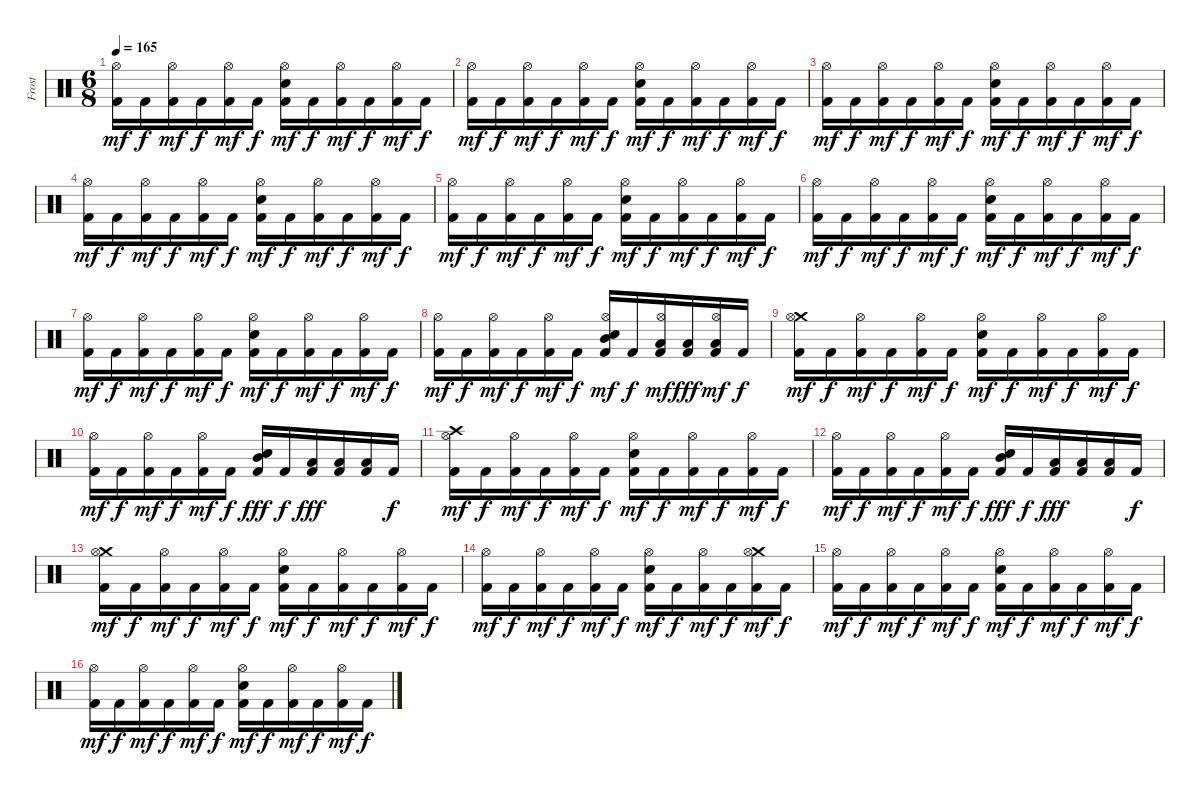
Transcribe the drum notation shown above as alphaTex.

\track ("Frost" "Frost") {instrument percussion}
\staff {score}
\articulation defaults
\ts (6 8)
\tempo 165
\clef neutral
\ks c
("Kick (hit) 2" "Hi-Hat (open)").16{dy mf} "Kick (hit) 2".16{dy f} ("Kick (hit) 2" "Hi-Hat (open)").16{dy mf} "Kick (hit) 2".16{dy f} ("Kick (hit) 2" "Hi-Hat (open)").16{dy mf} "Kick (hit) 2".16{dy f} ("Kick (hit) 2" "Hi-Hat (open)" "Snare (hit) 2").16{dy mf} "Kick (hit) 2".16{dy f} ("Kick (hit) 2" "Hi-Hat (open)").16{dy mf} "Kick (hit) 2".16{dy f} ("Kick (hit) 2" "Hi-Hat (open)").16{dy mf} "Kick (hit) 2".16{dy f} |
("Kick (hit) 2" "Hi-Hat (open)").16{dy mf} "Kick (hit) 2".16{dy f} ("Kick (hit) 2" "Hi-Hat (open)").16{dy mf} "Kick (hit) 2".16{dy f} ("Kick (hit) 2" "Hi-Hat (open)").16{dy mf} "Kick (hit) 2".16{dy f} ("Kick (hit) 2" "Hi-Hat (open)" "Snare (hit) 2").16{dy mf} "Kick (hit) 2".16{dy f} ("Kick (hit) 2" "Hi-Hat (open)").16{dy mf} "Kick (hit) 2".16{dy f} ("Kick (hit) 2" "Hi-Hat (open)").16{dy mf} "Kick (hit) 2".16{dy f} |
("Kick (hit) 2" "Hi-Hat (open)").16{dy mf} "Kick (hit) 2".16{dy f} ("Kick (hit) 2" "Hi-Hat (open)").16{dy mf} "Kick (hit) 2".16{dy f} ("Kick (hit) 2" "Hi-Hat (open)").16{dy mf} "Kick (hit) 2".16{dy f} ("Kick (hit) 2" "Hi-Hat (open)" "Snare (hit) 2").16{dy mf} "Kick (hit) 2".16{dy f} ("Kick (hit) 2" "Hi-Hat (open)").16{dy mf} "Kick (hit) 2".16{dy f} ("Kick (hit) 2" "Hi-Hat (open)").16{dy mf} "Kick (hit) 2".16{dy f} |
("Kick (hit) 2" "Hi-Hat (open)").16{dy mf} "Kick (hit) 2".16{dy f} ("Kick (hit) 2" "Hi-Hat (open)").16{dy mf} "Kick (hit) 2".16{dy f} ("Kick (hit) 2" "Hi-Hat (open)").16{dy mf} "Kick (hit) 2".16{dy f} ("Kick (hit) 2" "Hi-Hat (open)" "Snare (hit) 2").16{dy mf} "Kick (hit) 2".16{dy f} ("Kick (hit) 2" "Hi-Hat (open)").16{dy mf} "Kick (hit) 2".16{dy f} ("Kick (hit) 2" "Hi-Hat (open)").16{dy mf} "Kick (hit) 2".16{dy f} |
("Kick (hit) 2" "Hi-Hat (open)").16{dy mf} "Kick (hit) 2".16{dy f} ("Kick (hit) 2" "Hi-Hat (open)").16{dy mf} "Kick (hit) 2".16{dy f} ("Kick (hit) 2" "Hi-Hat (open)").16{dy mf} "Kick (hit) 2".16{dy f} ("Kick (hit) 2" "Hi-Hat (open)" "Snare (hit) 2").16{dy mf} "Kick (hit) 2".16{dy f} ("Kick (hit) 2" "Hi-Hat (open)").16{dy mf} "Kick (hit) 2".16{dy f} ("Kick (hit) 2" "Hi-Hat (open)").16{dy mf} "Kick (hit) 2".16{dy f} |
("Kick (hit) 2" "Hi-Hat (open)").16{dy mf} "Kick (hit) 2".16{dy f} ("Kick (hit) 2" "Hi-Hat (open)").16{dy mf} "Kick (hit) 2".16{dy f} ("Kick (hit) 2" "Hi-Hat (open)").16{dy mf} "Kick (hit) 2".16{dy f} ("Kick (hit) 2" "Hi-Hat (open)" "Snare (hit) 2").16{dy mf} "Kick (hit) 2".16{dy f} ("Kick (hit) 2" "Hi-Hat (open)").16{dy mf} "Kick (hit) 2".16{dy f} ("Kick (hit) 2" "Hi-Hat (open)").16{dy mf} "Kick (hit) 2".16{dy f} |
("Kick (hit) 2" "Hi-Hat (open)").16{dy mf} "Kick (hit) 2".16{dy f} ("Kick (hit) 2" "Hi-Hat (open)").16{dy mf} "Kick (hit) 2".16{dy f} ("Kick (hit) 2" "Hi-Hat (open)").16{dy mf} "Kick (hit) 2".16{dy f} ("Kick (hit) 2" "Hi-Hat (open)" "Snare (hit) 2").16{dy mf} "Kick (hit) 2".16{dy f} ("Kick (hit) 2" "Hi-Hat (open)").16{dy mf} "Kick (hit) 2".16{dy f} ("Kick (hit) 2" "Hi-Hat (open)").16{dy mf} "Kick (hit) 2".16{dy f} |
("Kick (hit) 2" "Hi-Hat (open)").16{dy mf} "Kick (hit) 2".16{dy f} ("Kick (hit) 2" "Hi-Hat (open)").16{dy mf} "Kick (hit) 2".16{dy f} ("Kick (hit) 2" "Hi-Hat (open)").16{dy mf} "Kick (hit) 2".16{dy f} ("Kick (hit) 2" "Mid Tom (hit)" "Hi-Hat (open)" "Snare (hit) 2").16{dy mf} "Kick (hit) 2".16{dy f} ("Kick (hit) 2" "Low Tom (hit)" "Hi-Hat (open)").16{dy mf} ("Kick (hit) 2" "Low Tom (hit)").16{dy fff} ("Kick (hit) 2" "Low Tom (hit)" "Hi-Hat (open)").16{dy mf} "Kick (hit) 2".16{dy f} |
("Kick (hit) 2" "Crash medium (hit)" "Hi-Hat (open)").16{dy mf} "Kick (hit) 2".16{dy f} ("Kick (hit) 2" "Hi-Hat (open)").16{dy mf} "Kick (hit) 2".16{dy f} ("Kick (hit) 2" "Hi-Hat (open)").16{dy mf} "Kick (hit) 2".16{dy f} ("Kick (hit) 2" "Hi-Hat (open)" "Snare (hit) 2").16{dy mf} "Kick (hit) 2".16{dy f} ("Kick (hit) 2" "Hi-Hat (open)").16{dy mf} "Kick (hit) 2".16{dy f} ("Kick (hit) 2" "Hi-Hat (open)").16{dy mf} "Kick (hit) 2".16{dy f} |
("Kick (hit) 2" "Hi-Hat (open)").16{dy mf} "Kick (hit) 2".16{dy f} ("Kick (hit) 2" "Hi-Hat (open)").16{dy mf} "Kick (hit) 2".16{dy f} ("Kick (hit) 2" "Hi-Hat (open)").16{dy mf} "Kick (hit) 2".16{dy f} ("Kick (hit) 2" "Mid Tom (hit)" "Snare (hit) 2").16{dy fff} "Kick (hit) 2".16{dy f} ("Kick (hit) 2" "Low Tom (hit)").16{dy fff} ("Kick (hit) 2" "Low Tom (hit)").16 ("Kick (hit) 2" "Low Tom (hit)").16 "Kick (hit) 2".16{dy f} |
("Kick (hit) 2" "Crash high (hit)" "Hi-Hat (open)").16{dy mf} "Kick (hit) 2".16{dy f} ("Kick (hit) 2" "Hi-Hat (open)").16{dy mf} "Kick (hit) 2".16{dy f} ("Kick (hit) 2" "Hi-Hat (open)").16{dy mf} "Kick (hit) 2".16{dy f} ("Kick (hit) 2" "Hi-Hat (open)" "Snare (hit) 2").16{dy mf} "Kick (hit) 2".16{dy f} ("Kick (hit) 2" "Hi-Hat (open)").16{dy mf} "Kick (hit) 2".16{dy f} ("Kick (hit) 2" "Hi-Hat (open)").16{dy mf} "Kick (hit) 2".16{dy f} |
("Kick (hit) 2" "Hi-Hat (open)").16{dy mf} "Kick (hit) 2".16{dy f} ("Kick (hit) 2" "Hi-Hat (open)").16{dy mf} "Kick (hit) 2".16{dy f} ("Kick (hit) 2" "Hi-Hat (open)").16{dy mf} "Kick (hit) 2".16{dy f} ("Kick (hit) 2" "Mid Tom (hit)" "Snare (hit) 2").16{dy fff} "Kick (hit) 2".16{dy f} ("Kick (hit) 2" "Low Tom (hit)").16{dy fff} ("Kick (hit) 2" "Low Tom (hit)").16 ("Kick (hit) 2" "Low Tom (hit)").16 "Kick (hit) 2".16{dy f} |
("Kick (hit) 2" "Crash medium (hit)" "Hi-Hat (open)").16{dy mf} "Kick (hit) 2".16{dy f} ("Kick (hit) 2" "Hi-Hat (open)").16{dy mf} "Kick (hit) 2".16{dy f} ("Kick (hit) 2" "Hi-Hat (open)").16{dy mf} "Kick (hit) 2".16{dy f} ("Kick (hit) 2" "Hi-Hat (open)" "Snare (hit) 2").16{dy mf} "Kick (hit) 2".16{dy f} ("Kick (hit) 2" "Hi-Hat (open)").16{dy mf} "Kick (hit) 2".16{dy f} ("Kick (hit) 2" "Hi-Hat (open)").16{dy mf} "Kick (hit) 2".16{dy f} |
("Kick (hit) 2" "Hi-Hat (open)").16{dy mf} "Kick (hit) 2".16{dy f} ("Kick (hit) 2" "Hi-Hat (open)").16{dy mf} "Kick (hit) 2".16{dy f} ("Kick (hit) 2" "Hi-Hat (open)").16{dy mf} "Kick (hit) 2".16{dy f} ("Kick (hit) 2" "Hi-Hat (open)" "Snare (hit) 2").16{dy mf} "Kick (hit) 2".16{dy f} ("Kick (hit) 2" "Hi-Hat (open)").16{dy mf} "Kick (hit) 2".16{dy f} ("Kick (hit) 2" "Crash medium (hit)" "Hi-Hat (open)").16{dy mf} "Kick (hit) 2".16{dy f} |
("Kick (hit) 2" "Hi-Hat (open)").16{dy mf} "Kick (hit) 2".16{dy f} ("Kick (hit) 2" "Hi-Hat (open)").16{dy mf} "Kick (hit) 2".16{dy f} ("Kick (hit) 2" "Hi-Hat (open)").16{dy mf} "Kick (hit) 2".16{dy f} ("Kick (hit) 2" "Hi-Hat (open)" "Snare (hit) 2").16{dy mf} "Kick (hit) 2".16{dy f} ("Kick (hit) 2" "Hi-Hat (open)").16{dy mf} "Kick (hit) 2".16{dy f} ("Kick (hit) 2" "Hi-Hat (open)").16{dy mf} "Kick (hit) 2".16{dy f} |
("Kick (hit) 2" "Hi-Hat (open)").16{dy mf} "Kick (hit) 2".16{dy f} ("Kick (hit) 2" "Hi-Hat (open)").16{dy mf} "Kick (hit) 2".16{dy f} ("Kick (hit) 2" "Hi-Hat (open)").16{dy mf} "Kick (hit) 2".16{dy f} ("Kick (hit) 2" "Hi-Hat (open)" "Snare (hit) 2").16{dy mf} "Kick (hit) 2".16{dy f} ("Kick (hit) 2" "Hi-Hat (open)").16{dy mf} "Kick (hit) 2".16{dy f} ("Kick (hit) 2" "Hi-Hat (open)").16{dy mf} "Kick (hit) 2".16{dy f}
